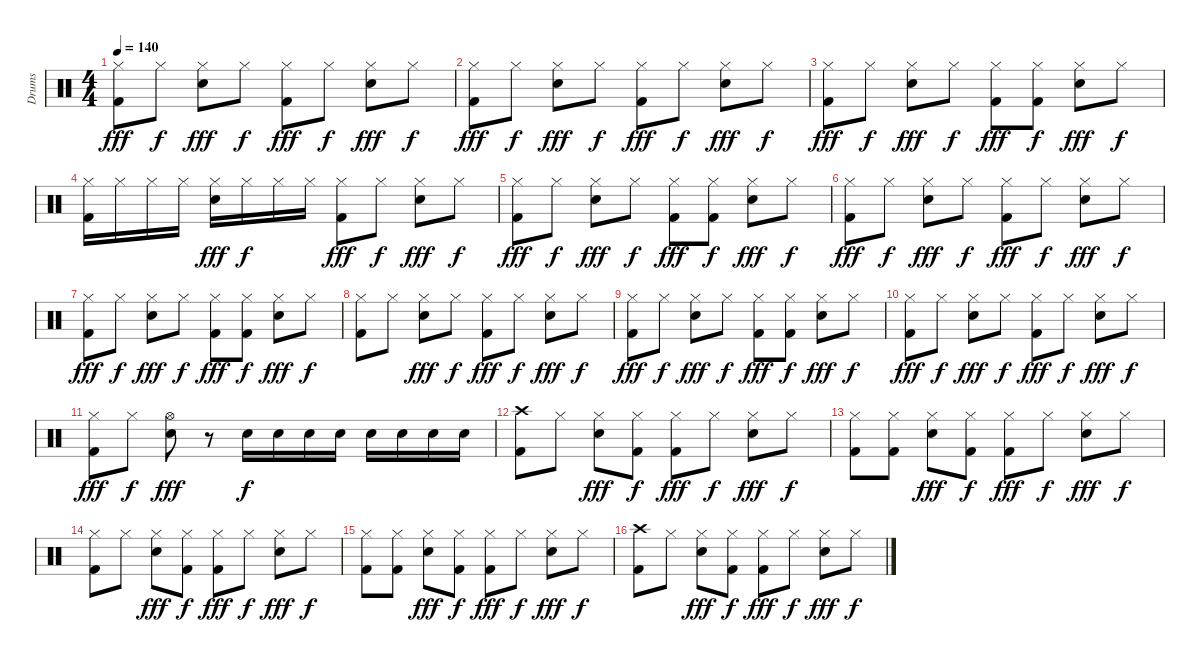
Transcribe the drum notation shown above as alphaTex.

\track ("Drums" "Drums") {instrument percussion}
\staff {score}
\articulation defaults
\ts (4 4)
\tempo 140
\clef neutral
\ks c
("Hi-Hat (closed)" "Kick (hit) 2").8{dy fff} "Hi-Hat (closed)".8{dy f} ("Hi-Hat (closed)" "Snare (hit) 2").8{dy fff} "Hi-Hat (closed)".8{dy f} ("Hi-Hat (closed)" "Kick (hit) 2").8{dy fff} "Hi-Hat (closed)".8{dy f} ("Hi-Hat (closed)" "Snare (hit) 2").8{dy fff} "Hi-Hat (closed)".8{dy f} |
("Hi-Hat (closed)" "Kick (hit) 2").8{dy fff} "Hi-Hat (closed)".8{dy f} ("Hi-Hat (closed)" "Snare (hit) 2").8{dy fff} "Hi-Hat (closed)".8{dy f} ("Hi-Hat (closed)" "Kick (hit) 2").8{dy fff} "Hi-Hat (closed)".8{dy f} ("Hi-Hat (closed)" "Snare (hit) 2").8{dy fff} "Hi-Hat (closed)".8{dy f} |
("Hi-Hat (closed)" "Kick (hit) 2").8{dy fff} "Hi-Hat (closed)".8{dy f} ("Hi-Hat (closed)" "Snare (hit) 2").8{dy fff} "Hi-Hat (closed)".8{dy f} ("Hi-Hat (closed)" "Kick (hit) 2").8{dy fff} ("Hi-Hat (closed)" "Kick (hit) 2").8{dy f} ("Hi-Hat (closed)" "Snare (hit) 2").8{dy fff} "Hi-Hat (closed)".8{dy f} |
("Hi-Hat (closed)" "Kick (hit) 2").16 "Hi-Hat (closed)".16 "Hi-Hat (closed)".16 "Hi-Hat (closed)".16 ("Hi-Hat (closed)" "Snare (hit) 2").16{dy fff} "Hi-Hat (closed)".16{dy f} "Hi-Hat (closed)".16 "Hi-Hat (closed)".16 ("Hi-Hat (closed)" "Kick (hit) 2").8{dy fff} "Hi-Hat (closed)".8{dy f} ("Hi-Hat (closed)" "Snare (hit) 2").8{dy fff} "Hi-Hat (closed)".8{dy f} |
("Hi-Hat (closed)" "Kick (hit) 2").8{dy fff} "Hi-Hat (closed)".8{dy f} ("Hi-Hat (closed)" "Snare (hit) 2").8{dy fff} "Hi-Hat (closed)".8{dy f} ("Hi-Hat (closed)" "Kick (hit) 2").8{dy fff} ("Hi-Hat (closed)" "Kick (hit) 2").8{dy f} ("Hi-Hat (closed)" "Snare (hit) 2").8{dy fff} "Hi-Hat (closed)".8{dy f} |
("Hi-Hat (closed)" "Kick (hit) 2").8{dy fff} "Hi-Hat (closed)".8{dy f} ("Hi-Hat (closed)" "Snare (hit) 2").8{dy fff} "Hi-Hat (closed)".8{dy f} ("Hi-Hat (closed)" "Kick (hit) 2").8{dy fff} "Hi-Hat (closed)".8{dy f} ("Hi-Hat (closed)" "Snare (hit) 2").8{dy fff} "Hi-Hat (closed)".8{dy f} |
("Hi-Hat (closed)" "Kick (hit) 2").8{dy fff} "Hi-Hat (closed)".8{dy f} ("Hi-Hat (closed)" "Snare (hit) 2").8{dy fff} "Hi-Hat (closed)".8{dy f} ("Hi-Hat (closed)" "Kick (hit) 2").8{dy fff} ("Hi-Hat (closed)" "Kick (hit) 2").8{dy f} ("Hi-Hat (closed)" "Snare (hit) 2").8{dy fff} "Hi-Hat (closed)".8{dy f} |
("Hi-Hat (closed)" "Kick (hit) 2").8 "Hi-Hat (closed)".8 ("Hi-Hat (closed)" "Snare (hit) 2").8{dy fff} "Hi-Hat (closed)".8{dy f} ("Hi-Hat (closed)" "Kick (hit) 2").8{dy fff} "Hi-Hat (closed)".8{dy f} ("Hi-Hat (closed)" "Snare (hit) 2").8{dy fff} "Hi-Hat (closed)".8{dy f} |
("Hi-Hat (closed)" "Kick (hit) 2").8{dy fff} "Hi-Hat (closed)".8{dy f} ("Hi-Hat (closed)" "Snare (hit) 2").8{dy fff} "Hi-Hat (closed)".8{dy f} ("Hi-Hat (closed)" "Kick (hit) 2").8{dy fff} ("Hi-Hat (closed)" "Kick (hit) 2").8{dy f} ("Hi-Hat (closed)" "Snare (hit) 2").8{dy fff} "Hi-Hat (closed)".8{dy f} |
("Hi-Hat (closed)" "Kick (hit) 2").8{dy fff} "Hi-Hat (closed)".8{dy f} ("Hi-Hat (closed)" "Snare (hit) 2").8{dy fff} "Hi-Hat (closed)".8{dy f} ("Hi-Hat (closed)" "Kick (hit) 2").8{dy fff} "Hi-Hat (closed)".8{dy f} ("Hi-Hat (closed)" "Snare (hit) 2").8{dy fff} "Hi-Hat (closed)".8{dy f} |
("Hi-Hat (closed)" "Kick (hit) 2").8{dy fff} "Hi-Hat (closed)".8{dy f} ("Hi-Hat (open)" "Snare (hit) 2").8{dy fff} r.8 "Snare (hit) 2".16{dy f} "Snare (hit) 2".16 "Snare (hit) 2".16 "Snare (hit) 2".16 "Snare (hit) 2".16 "Snare (hit) 2".16 "Snare (hit) 2".16 "Snare (hit) 2".16 |
("Crash high (hit)" "Kick (hit) 2").8 "Hi-Hat (closed)".8 ("Hi-Hat (closed)" "Snare (hit) 2").8{dy fff} ("Hi-Hat (closed)" "Kick (hit) 2").8{dy f} ("Hi-Hat (closed)" "Kick (hit) 2").8{dy fff} "Hi-Hat (closed)".8{dy f} ("Hi-Hat (closed)" "Snare (hit) 2").8{dy fff} "Hi-Hat (closed)".8{dy f} |
("Hi-Hat (closed)" "Kick (hit) 2").8 ("Hi-Hat (closed)" "Kick (hit) 2").8 ("Hi-Hat (closed)" "Snare (hit) 2").8{dy fff} ("Hi-Hat (closed)" "Kick (hit) 2").8{dy f} ("Hi-Hat (closed)" "Kick (hit) 2").8{dy fff} "Hi-Hat (closed)".8{dy f} ("Hi-Hat (closed)" "Snare (hit) 2").8{dy fff} "Hi-Hat (closed)".8{dy f} |
("Hi-Hat (closed)" "Kick (hit) 2").8 "Hi-Hat (closed)".8 ("Hi-Hat (closed)" "Snare (hit) 2").8{dy fff} ("Hi-Hat (closed)" "Kick (hit) 2").8{dy f} ("Hi-Hat (closed)" "Kick (hit) 2").8{dy fff} "Hi-Hat (closed)".8{dy f} ("Hi-Hat (closed)" "Snare (hit) 2").8{dy fff} "Hi-Hat (closed)".8{dy f} |
("Hi-Hat (closed)" "Kick (hit) 2").8 ("Hi-Hat (closed)" "Kick (hit) 2").8 ("Hi-Hat (closed)" "Snare (hit) 2").8{dy fff} ("Hi-Hat (closed)" "Kick (hit) 2").8{dy f} ("Hi-Hat (closed)" "Kick (hit) 2").8{dy fff} "Hi-Hat (closed)".8{dy f} ("Hi-Hat (closed)" "Snare (hit) 2").8{dy fff} "Hi-Hat (closed)".8{dy f} |
("Crash high (hit)" "Kick (hit) 2").8 "Hi-Hat (closed)".8 ("Hi-Hat (closed)" "Snare (hit) 2").8{dy fff} ("Hi-Hat (closed)" "Kick (hit) 2").8{dy f} ("Hi-Hat (closed)" "Kick (hit) 2").8{dy fff} "Hi-Hat (closed)".8{dy f} ("Hi-Hat (closed)" "Snare (hit) 2").8{dy fff} "Hi-Hat (closed)".8{dy f}
